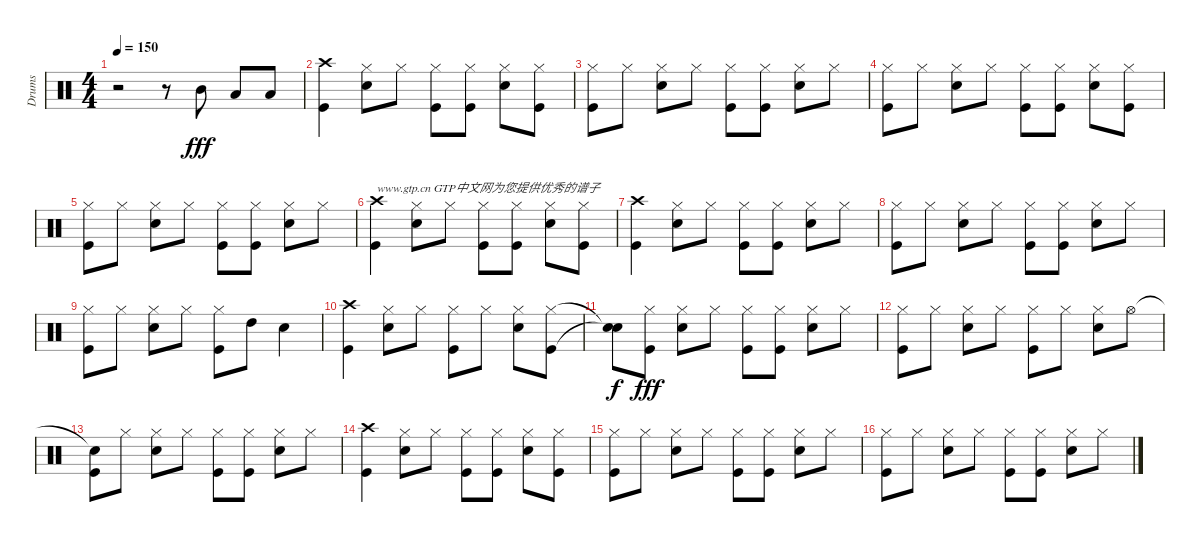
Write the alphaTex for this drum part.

\track ("Drums" "Drums") {instrument percussion}
\staff {score}
\articulation defaults
\ts (4 4)
\tempo 150
\clef neutral
\ks c
r.2{dy fff} r.8 "Mid Tom (hit)".8 "Low Tom (hit)".8 "Low Tom (hit)".8 |
("Crash high (hit)" "Kick (hit)").4 ("Hi-Hat (closed)" "Snare (hit) 2").8 "Hi-Hat (closed)".8 ("Hi-Hat (closed)" "Kick (hit)").8 ("Hi-Hat (closed)" "Kick (hit)").8 ("Hi-Hat (closed)" "Snare (hit) 2").8 ("Hi-Hat (closed)" "Kick (hit)").8 |
("Hi-Hat (closed)" "Kick (hit)").8 "Hi-Hat (closed)".8 ("Hi-Hat (closed)" "Snare (hit) 2").8 "Hi-Hat (closed)".8 ("Hi-Hat (closed)" "Kick (hit)").8 ("Hi-Hat (closed)" "Kick (hit)").8 ("Hi-Hat (closed)" "Snare (hit) 2").8 "Hi-Hat (closed)".8 |
("Hi-Hat (closed)" "Kick (hit)").8 "Hi-Hat (closed)".8 ("Hi-Hat (closed)" "Snare (hit) 2").8 "Hi-Hat (closed)".8 ("Hi-Hat (closed)" "Kick (hit)").8 ("Hi-Hat (closed)" "Kick (hit)").8 ("Hi-Hat (closed)" "Snare (hit) 2").8 ("Hi-Hat (closed)" "Kick (hit)").8 |
("Hi-Hat (closed)" "Kick (hit)").8 "Hi-Hat (closed)".8 ("Hi-Hat (closed)" "Snare (hit) 2").8 "Hi-Hat (closed)".8 ("Hi-Hat (closed)" "Kick (hit)").8 ("Hi-Hat (closed)" "Kick (hit)").8 ("Hi-Hat (closed)" "Snare (hit) 2").8 "Hi-Hat (closed)".8 |
("Crash high (hit)" "Kick (hit)").4{txt "www.gtp.cn GTP中文网为您提供优秀的谱子"} ("Hi-Hat (closed)" "Snare (hit) 2").8 "Hi-Hat (closed)".8 ("Hi-Hat (closed)" "Kick (hit)").8 ("Hi-Hat (closed)" "Kick (hit)").8 ("Hi-Hat (closed)" "Snare (hit) 2").8 ("Hi-Hat (closed)" "Kick (hit)").8 |
("Crash high (hit)" "Kick (hit)").4 ("Hi-Hat (closed)" "Snare (hit) 2").8 "Hi-Hat (closed)".8 ("Hi-Hat (closed)" "Kick (hit)").8 ("Hi-Hat (closed)" "Kick (hit)").8 ("Hi-Hat (closed)" "Snare (hit) 2").8 "Hi-Hat (closed)".8 |
("Hi-Hat (closed)" "Kick (hit)").8 "Hi-Hat (closed)".8 ("Hi-Hat (closed)" "Snare (hit) 2").8 "Hi-Hat (closed)".8 ("Hi-Hat (closed)" "Kick (hit)").8 ("Hi-Hat (closed)" "Kick (hit)").8 ("Hi-Hat (closed)" "Snare (hit) 2").8 "Hi-Hat (closed)".8 |
("Hi-Hat (closed)" "Kick (hit)").8 "Hi-Hat (closed)".8 ("Hi-Hat (closed)" "Snare (hit) 2").8 "Hi-Hat (closed)".8 ("Hi-Hat (closed)" "Kick (hit)").8 "High Tom (hit)".8 "Snare (hit) 2".4 |
("Crash high (hit)" "Kick (hit)").4 ("Hi-Hat (closed)" "Snare (hit) 2").8 "Hi-Hat (closed)".8 ("Hi-Hat (closed)" "Kick (hit)").8 "Hi-Hat (closed)".8 ("Hi-Hat (closed)" "Snare (hit) 2").8 ("Hi-Hat (closed)" "Kick (hit)").8 |
("Snare (hit)"{t} "Snare (hit)"{t}).8{dy f} ("Hi-Hat (closed)" "Kick (hit)").8{dy fff} ("Hi-Hat (closed)" "Snare (hit) 2").8 "Hi-Hat (closed)".8 ("Hi-Hat (closed)" "Kick (hit)").8 ("Hi-Hat (closed)" "Kick (hit)").8 ("Hi-Hat (closed)" "Snare (hit) 2").8 "Hi-Hat (closed)".8 |
("Hi-Hat (closed)" "Kick (hit)").8 "Hi-Hat (closed)".8 ("Hi-Hat (closed)" "Snare (hit) 2").8 "Hi-Hat (closed)".8 ("Hi-Hat (closed)" "Kick (hit)").8 "Hi-Hat (closed)".8 ("Hi-Hat (closed)" "Snare (hit) 2").8 "Hi-Hat (open)".8 |
("Snare (hit)"{t} "Kick (hit)").8 "Hi-Hat (closed)".8 ("Hi-Hat (closed)" "Snare (hit) 2").8 "Hi-Hat (closed)".8 ("Hi-Hat (closed)" "Kick (hit)").8 ("Hi-Hat (closed)" "Kick (hit)").8 ("Hi-Hat (closed)" "Snare (hit) 2").8 "Hi-Hat (closed)".8 |
("Crash high (hit)" "Kick (hit)").4 ("Hi-Hat (closed)" "Snare (hit) 2").8 "Hi-Hat (closed)".8 ("Hi-Hat (closed)" "Kick (hit)").8 ("Hi-Hat (closed)" "Kick (hit)").8 ("Hi-Hat (closed)" "Snare (hit) 2").8 ("Hi-Hat (closed)" "Kick (hit)").8 |
("Hi-Hat (closed)" "Kick (hit)").8 "Hi-Hat (closed)".8 ("Hi-Hat (closed)" "Snare (hit) 2").8 "Hi-Hat (closed)".8 ("Hi-Hat (closed)" "Kick (hit)").8 ("Hi-Hat (closed)" "Kick (hit)").8 ("Hi-Hat (closed)" "Snare (hit) 2").8 "Hi-Hat (closed)".8 |
("Hi-Hat (closed)" "Kick (hit)").8 "Hi-Hat (closed)".8 ("Hi-Hat (closed)" "Snare (hit) 2").8 "Hi-Hat (closed)".8 ("Hi-Hat (closed)" "Kick (hit)").8 ("Hi-Hat (closed)" "Kick (hit)").8 ("Hi-Hat (closed)" "Snare (hit) 2").8 "Hi-Hat (closed)".8
